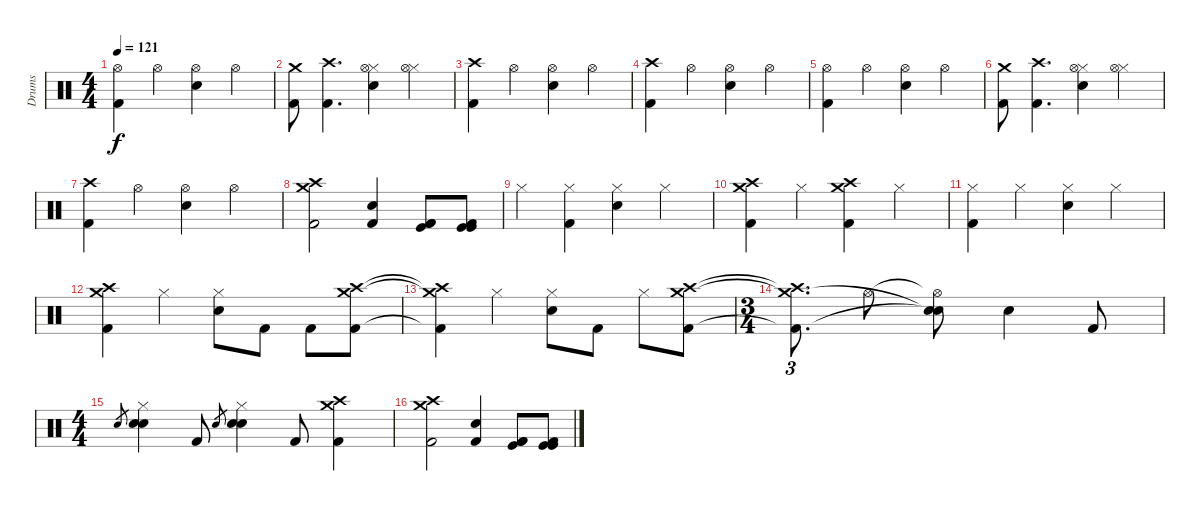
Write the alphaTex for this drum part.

\track ("Drums" "Drums") {instrument percussion}
\staff {score}
\articulation defaults
\ts (4 4)
\tempo 121
\clef neutral
\ks c
("Hi-Hat (open)" "Kick (hit) 2").4{dy f} "Hi-Hat (open)".4 ("Hi-Hat (open)" "Electric Snare (hit)").4 "Hi-Hat (open)".4 |
("Crash medium (hit)" "Kick (hit) 2").8 ("Crash high (hit)" "Kick (hit) 2").4{d} ("Hi-Hat (closed)" "Electric Snare (hit)" "Hi-Hat (open)").4 ("Hi-Hat (closed)" "Hi-Hat (open)").4 |
("Crash high (hit)" "Kick (hit) 2").4 "Hi-Hat (open)".4 ("Hi-Hat (open)" "Electric Snare (hit)").4 "Hi-Hat (open)".4 |
("Crash high (hit)" "Kick (hit) 2").4 "Hi-Hat (open)".4 ("Hi-Hat (open)" "Electric Snare (hit)").4 "Hi-Hat (open)".4 |
("Hi-Hat (open)" "Kick (hit) 2").4 "Hi-Hat (open)".4 ("Hi-Hat (open)" "Electric Snare (hit)").4 "Hi-Hat (open)".4 |
("Crash medium (hit)" "Kick (hit) 2").8 ("Crash high (hit)" "Kick (hit) 2").4{d} ("Hi-Hat (closed)" "Electric Snare (hit)" "Hi-Hat (open)").4 ("Hi-Hat (closed)" "Hi-Hat (open)").4 |
("Crash high (hit)" "Kick (hit) 2").4 "Hi-Hat (open)".4 ("Hi-Hat (open)" "Electric Snare (hit)").4 "Hi-Hat (open)".4 |
("Crash high (hit)" "Crash medium (hit)" "Kick (hit) 2").2 ("Snare (hit) 2" "Kick (hit) 2").4 ("Kick (hit)" "Kick (hit) 2" "Kick (hit) 2").8 ("Kick (hit)" "Kick (hit) 2" "Kick (hit)").8 |
"Hi-Hat (closed)".4 ("Hi-Hat (closed)" "Kick (hit) 2").4 ("Hi-Hat (closed)" "Snare (hit) 2").4 "Hi-Hat (closed)".4 |
("Crash high (hit)" "Crash medium (hit)" "Kick (hit) 2").4 "Hi-Hat (closed)".4 ("Crash high (hit)" "Crash medium (hit)" "Kick (hit) 2").4 "Hi-Hat (closed)".4 |
("Hi-Hat (closed)" "Kick (hit) 2").4 "Hi-Hat (closed)".4 ("Hi-Hat (closed)" "Snare (hit) 2").4 "Hi-Hat (closed)".4 |
("Crash high (hit)" "Crash medium (hit)" "Kick (hit) 2").4 "Hi-Hat (closed)".4 ("Hi-Hat (closed)" "Snare (hit) 2").8 "Kick (hit) 2".8 "Kick (hit) 2".8 ("Crash high (hit)" "Crash medium (hit)" "Kick (hit) 2").8 |
("Crash high (hit)"{t} "Crash medium (hit)"{t} "Kick (hit) 2"{t}).4 "Hi-Hat (closed)".4 ("Hi-Hat (closed)" "Snare (hit) 2").8 "Kick (hit) 2".8 "Hi-Hat (closed)".8 ("Crash high (hit)" "Crash medium (hit)" "Kick (hit) 2").8 |
\ts (3 4)
("Crash high (hit)"{t} "Crash medium (hit)"{t} "Kick (hit) 2"{t}).8{d tu (3 2)} "Hi-Hat (open)".8 ("Hi-Hat (open)"{t} "Snare (hit)"{t} "Snare (hit)"{t}).8 "Snare (hit) 2".4 "Kick (hit) 2".8 |
\ts (4 4)
"Electric Snare (hit)".8{gr} ("Electric Snare (hit)" "Snare (hit) 2" "Hi-Hat (closed)").4 "Kick (hit) 2".8 "Electric Snare (hit)".8{gr} ("Electric Snare (hit)" "Snare (hit) 2" "Hi-Hat (closed)").4 "Kick (hit) 2".8 ("Crash high (hit)" "Crash medium (hit)" "Kick (hit) 2").4 |
("Crash high (hit)" "Crash medium (hit)" "Kick (hit) 2").2 ("Snare (hit) 2" "Kick (hit) 2").4 ("Kick (hit)" "Kick (hit) 2" "Kick (hit) 2").8 ("Kick (hit)" "Kick (hit) 2" "Kick (hit)").8
